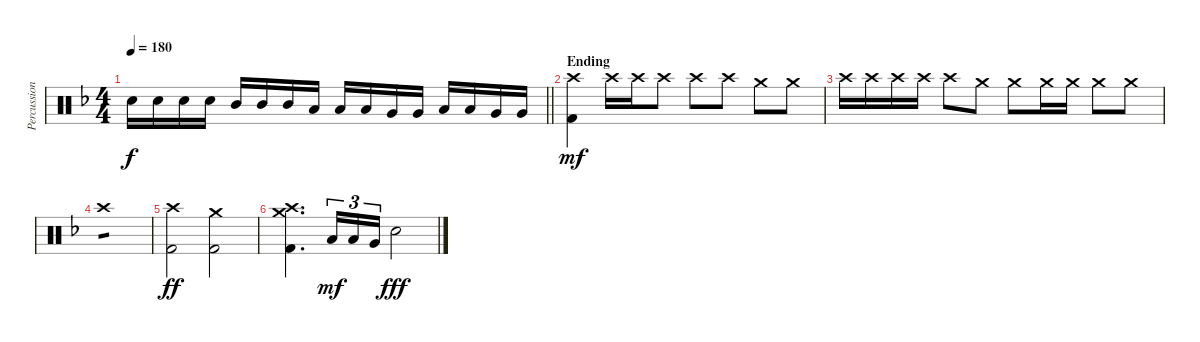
\track ("Percussion" "Percussion") {instrument percussion}
\staff {score}
\articulation defaults
\ts (4 4)
\tempo 180
\clef neutral
\barLineRight lightlight
\ks dminor "Snare (hit) 2".16{dy f} "Snare (hit) 2".16 "Snare (hit) 2".16 "Snare (hit) 2".16 "Mid Tom (hit)".16 "Mid Tom (hit)".16 "Mid Tom (hit)".16 "Low Tom (hit)".16 "Low Tom (hit)".16 "Low Tom (hit)".16 "Very Low Tom (hit)".16 "Very Low Tom (hit)".16 "Low Tom (hit)".16 "Low Tom (hit)".16 "Very Low Tom (hit)".16 "Very Low Tom (hit)".16
|
\section ("" "Ending")
("Crash high (hit)" "Kick (hit) 2").4{dy mf} "Crash high (hit)".16 "Crash high (hit)".16 "Crash high (hit)".8 "Crash high (hit)".8 "Crash high (hit)".8 "Crash medium (hit)".8 "Crash medium (hit)".8 |
"Crash high (hit)".16 "Crash high (hit)".16 "Crash high (hit)".16 "Crash high (hit)".16 "Crash high (hit)".8 "Crash medium (hit)".8 "Crash medium (hit)".8 "Crash medium (hit)".16 "Crash medium (hit)".16 "Crash medium (hit)".8 "Crash medium (hit)".8 |
"Crash high (hit)".1{tp 1} |
("Crash high (hit)" "Kick (hit) 2").2{dy ff} ("Crash medium (hit)" "Kick (hit) 2").2 |
("Crash medium (hit)" "Crash high (hit)" "Kick (hit) 2").4{d} "Low Tom (hit)".16{tu (3 2) dy mf} "Low Tom (hit)".16{tu (3 2)} "Very Low Tom (hit)".16{tu (3 2)} "Snare (hit) 2".2{dy fff}
